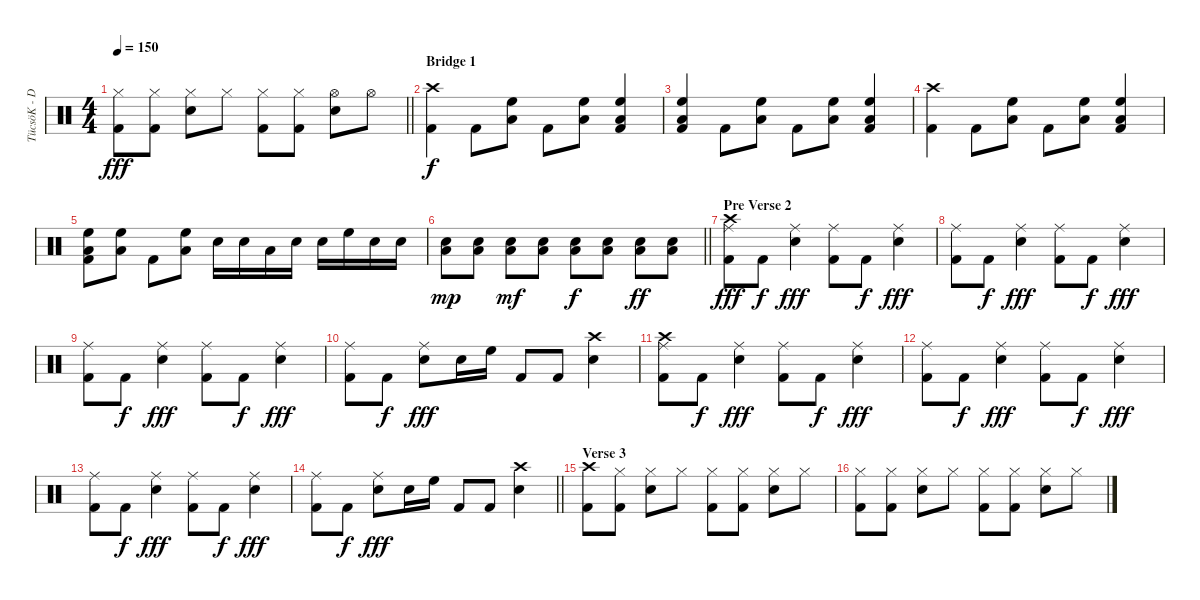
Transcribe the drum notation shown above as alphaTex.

\track ("TücsöK - Dob" "TücsöK - D") {instrument percussion}
\staff {score}
\articulation defaults
\ts (4 4)
\tempo 150
\clef neutral
\barLineRight lightlight
\ks c
("Hi-Hat (closed)" "Kick (hit) 2").8{dy fff} ("Hi-Hat (closed)" "Kick (hit) 2").8 ("Hi-Hat (closed)" "Snare (hit) 2").8 "Hi-Hat (closed)".8 ("Hi-Hat (closed)" "Kick (hit) 2").8 ("Hi-Hat (closed)" "Kick (hit) 2").8 ("Hi-Hat (open)" "Snare (hit) 2").8 "Hi-Hat (open)".8 |
\section ("" "Bridge 1")
("Crash high (hit)" "Kick (hit) 2").4{dy f} "Kick (hit) 2".8 ("High Floor Tom (hit)" "Low Tom (hit)").8 "Kick (hit) 2".8 ("High Floor Tom (hit)" "Low Tom (hit)").8 ("High Floor Tom (hit)" "Low Tom (hit)" "Kick (hit) 2").4 |
("High Floor Tom (hit)" "Low Tom (hit)" "Kick (hit) 2").4 "Kick (hit) 2".8 ("High Floor Tom (hit)" "Low Tom (hit)").8 "Kick (hit) 2".8 ("High Floor Tom (hit)" "Low Tom (hit)").8 ("High Floor Tom (hit)" "Low Tom (hit)" "Kick (hit) 2").4 |
("Crash high (hit)" "Kick (hit) 2").4 "Kick (hit) 2".8 ("High Floor Tom (hit)" "Low Tom (hit)").8 "Kick (hit) 2".8 ("High Floor Tom (hit)" "Low Tom (hit)").8 ("High Floor Tom (hit)" "Low Tom (hit)" "Kick (hit) 2").4 |
("High Floor Tom (hit)" "Low Tom (hit)" "Kick (hit) 2").8 ("High Floor Tom (hit)" "Low Tom (hit)").8 "Kick (hit) 2".8 ("High Floor Tom (hit)" "Low Tom (hit)").8 "Snare (hit) 2".16 "Snare (hit) 2".16 "Low Tom (hit)".16 "Snare (hit) 2".16 "Snare (hit) 2".16 "High Floor Tom (hit)".16 "Snare (hit) 2".16 "Snare (hit) 2".16 |
\barLineRight lightlight
("Snare (hit) 2" "Low Tom (hit)").8{dy mp} ("Snare (hit) 2" "Low Tom (hit)").8 ("Snare (hit) 2" "Low Tom (hit)").8{dy mf} ("Snare (hit) 2" "Low Tom (hit)").8 ("Snare (hit) 2" "Low Tom (hit)").8{dy f} ("Snare (hit) 2" "Low Tom (hit)").8 ("Snare (hit) 2" "Low Tom (hit)").8{dy ff} ("Snare (hit) 2" "Low Tom (hit)").8 |
\section ("" "Pre Verse 2")
("Crash high (hit)" "Ride (middle)" "Kick (hit) 2").8{dy fff} "Kick (hit) 2".8{dy f} ("Ride (middle)" "Snare (hit) 2").4{dy fff} ("Ride (middle)" "Kick (hit) 2").8 "Kick (hit) 2".8{dy f} ("Ride (middle)" "Snare (hit) 2").4{dy fff} |
("Ride (middle)" "Kick (hit) 2").8 "Kick (hit) 2".8{dy f} ("Ride (middle)" "Snare (hit) 2").4{dy fff} ("Ride (middle)" "Kick (hit) 2").8 "Kick (hit) 2".8{dy f} ("Ride (middle)" "Snare (hit) 2").4{dy fff} |
("Ride (middle)" "Kick (hit) 2").8 "Kick (hit) 2".8{dy f} ("Ride (middle)" "Snare (hit) 2").4{dy fff} ("Ride (middle)" "Kick (hit) 2").8 "Kick (hit) 2".8{dy f} ("Ride (middle)" "Snare (hit) 2").4{dy fff} |
("Ride (middle)" "Kick (hit) 2").8 "Kick (hit) 2".8{dy f} ("Ride (middle)" "Snare (hit) 2").8{dy fff} "Snare (hit) 2".16 "High Floor Tom (hit)".16 "Kick (hit) 2".8 "Kick (hit) 2".8 ("Crash high (hit)" "Snare (hit) 2").4 |
("Crash high (hit)" "Ride (middle)" "Kick (hit) 2").8 "Kick (hit) 2".8{dy f} ("Ride (middle)" "Snare (hit) 2").4{dy fff} ("Ride (middle)" "Kick (hit) 2").8 "Kick (hit) 2".8{dy f} ("Ride (middle)" "Snare (hit) 2").4{dy fff} |
("Ride (middle)" "Kick (hit) 2").8 "Kick (hit) 2".8{dy f} ("Ride (middle)" "Snare (hit) 2").4{dy fff} ("Ride (middle)" "Kick (hit) 2").8 "Kick (hit) 2".8{dy f} ("Ride (middle)" "Snare (hit) 2").4{dy fff} |
("Ride (middle)" "Kick (hit) 2").8 "Kick (hit) 2".8{dy f} ("Ride (middle)" "Snare (hit) 2").4{dy fff} ("Ride (middle)" "Kick (hit) 2").8 "Kick (hit) 2".8{dy f} ("Ride (middle)" "Snare (hit) 2").4{dy fff} |
\barLineRight lightlight
("Ride (middle)" "Kick (hit) 2").8 "Kick (hit) 2".8{dy f} ("Ride (middle)" "Snare (hit) 2").8{dy fff} "Snare (hit) 2".16 "High Floor Tom (hit)".16 "Kick (hit) 2".8 "Kick (hit) 2".8 ("Crash high (hit)" "Snare (hit) 2").4 |
\section ("" "Verse 3")
("Crash high (hit)" "Kick (hit) 2").8 ("Hi-Hat (closed)" "Kick (hit) 2").8 ("Hi-Hat (closed)" "Snare (hit) 2").8 "Hi-Hat (closed)".8 ("Hi-Hat (closed)" "Kick (hit) 2").8 ("Hi-Hat (closed)" "Kick (hit) 2").8 ("Hi-Hat (closed)" "Snare (hit) 2").8 "Hi-Hat (closed)".8 |
("Hi-Hat (closed)" "Kick (hit) 2").8 ("Hi-Hat (closed)" "Kick (hit) 2").8 ("Hi-Hat (closed)" "Snare (hit) 2").8 "Hi-Hat (closed)".8 ("Hi-Hat (closed)" "Kick (hit) 2").8 ("Hi-Hat (closed)" "Kick (hit) 2").8 ("Hi-Hat (closed)" "Snare (hit) 2").8 "Hi-Hat (closed)".8
